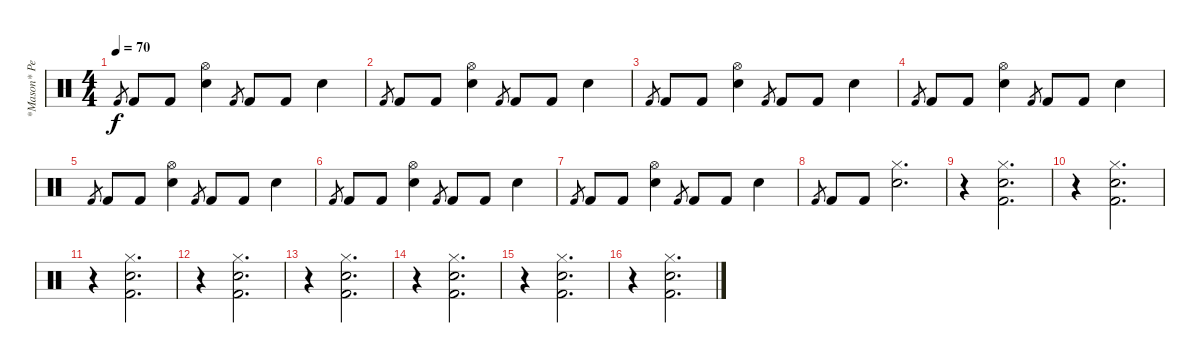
\track ("*Mason* Percussion" "*Mason* Pe") {instrument percussion}
\staff {score}
\articulation defaults
\ts (4 4)
\tempo 70
\clef neutral
\ks c "Kick (hit) 2".8{gr dy f} "Kick (hit) 2".8 "Kick (hit) 2".8
("Hi-Hat (open)" "Snare (hit) 2").4 "Kick (hit) 2".8{gr} "Kick (hit) 2".8 "Kick (hit) 2".8 "Snare (hit) 2".4 |
"Kick (hit) 2".8{gr} "Kick (hit) 2".8 "Kick (hit) 2".8 ("Hi-Hat (open)" "Snare (hit) 2").4 "Kick (hit) 2".8{gr} "Kick (hit) 2".8 "Kick (hit) 2".8 "Snare (hit) 2".4 |
"Kick (hit) 2".8{gr} "Kick (hit) 2".8 "Kick (hit) 2".8 ("Hi-Hat (open)" "Snare (hit) 2").4 "Kick (hit) 2".8{gr} "Kick (hit) 2".8 "Kick (hit) 2".8 "Snare (hit) 2".4 |
"Kick (hit) 2".8{gr} "Kick (hit) 2".8 "Kick (hit) 2".8 ("Hi-Hat (open)" "Snare (hit) 2").4 "Kick (hit) 2".8{gr} "Kick (hit) 2".8 "Kick (hit) 2".8 "Snare (hit) 2".4 |
"Kick (hit) 2".8{gr} "Kick (hit) 2".8 "Kick (hit) 2".8 ("Hi-Hat (open)" "Snare (hit) 2").4 "Kick (hit) 2".8{gr} "Kick (hit) 2".8 "Kick (hit) 2".8 "Snare (hit) 2".4 |
"Kick (hit) 2".8{gr} "Kick (hit) 2".8 "Kick (hit) 2".8 ("Hi-Hat (open)" "Snare (hit) 2").4 "Kick (hit) 2".8{gr} "Kick (hit) 2".8 "Kick (hit) 2".8 "Snare (hit) 2".4 |
"Kick (hit) 2".8{gr} "Kick (hit) 2".8 "Kick (hit) 2".8 ("Hi-Hat (open)" "Snare (hit) 2").4 "Kick (hit) 2".8{gr} "Kick (hit) 2".8 "Kick (hit) 2".8 "Snare (hit) 2".4 |
"Kick (hit) 2".8{gr} "Kick (hit) 2".8 "Kick (hit) 2".8 ("Hi-Hat (closed)" "Snare (hit) 2").2{d} |
r.4 ("Hi-Hat (closed)" "Snare (hit) 2" "Kick (hit) 2").2{d} |
r.4 ("Hi-Hat (closed)" "Snare (hit) 2" "Kick (hit) 2").2{d} |
r.4 ("Hi-Hat (closed)" "Snare (hit) 2" "Kick (hit) 2").2{d} |
r.4 ("Hi-Hat (closed)" "Snare (hit) 2" "Kick (hit) 2").2{d} |
r.4 ("Hi-Hat (closed)" "Snare (hit) 2" "Kick (hit) 2").2{d} |
r.4 ("Hi-Hat (closed)" "Snare (hit) 2" "Kick (hit) 2").2{d} |
r.4 ("Hi-Hat (closed)" "Snare (hit) 2" "Kick (hit) 2").2{d} |
r.4 ("Hi-Hat (closed)" "Snare (hit) 2" "Kick (hit) 2").2{d}
